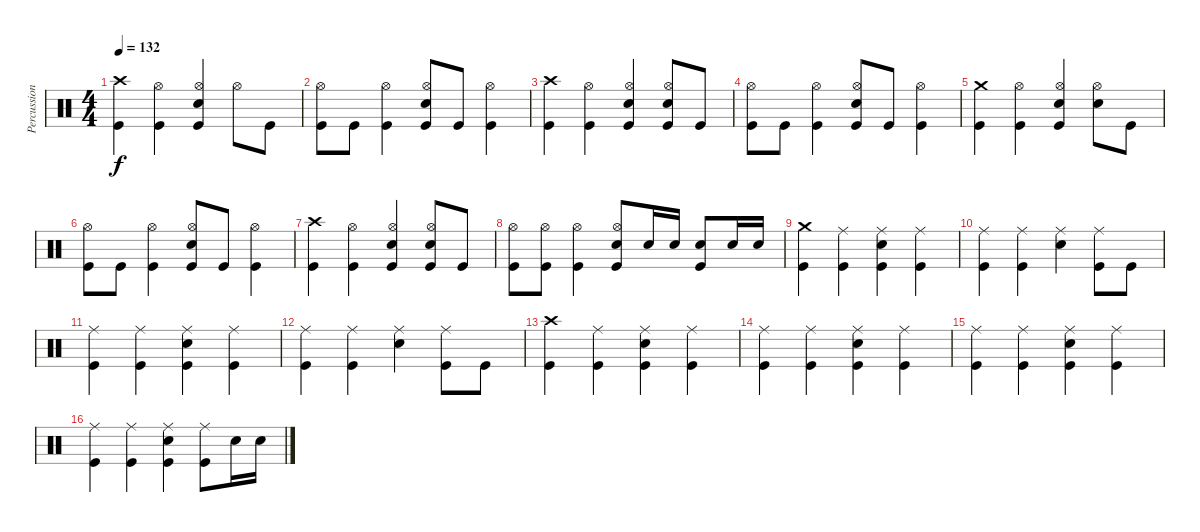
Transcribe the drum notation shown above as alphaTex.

\track ("Percussion" "Percussion") {instrument percussion}
\staff {score}
\articulation defaults
\ts (4 4)
\tempo 132
\clef neutral
\ks c
("Crash high (hit)" "Kick (hit)").4{dy f} ("Hi-Hat (open)" "Kick (hit)").4 ("Hi-Hat (open)" "Electric Snare (hit)" "Kick (hit)").4 "Hi-Hat (open)".8 "Kick (hit)".8 |
("Hi-Hat (open)" "Kick (hit)").8 "Kick (hit)".8 ("Hi-Hat (open)" "Kick (hit)").4 ("Hi-Hat (open)" "Electric Snare (hit)" "Kick (hit)").8 "Kick (hit)".8 ("Hi-Hat (open)" "Kick (hit)").4 |
("Crash high (hit)" "Kick (hit)").4 ("Hi-Hat (open)" "Kick (hit)").4 ("Hi-Hat (open)" "Electric Snare (hit)" "Kick (hit)").4 ("Hi-Hat (open)" "Electric Snare (hit)" "Kick (hit)").8 "Kick (hit)".8 |
("Hi-Hat (open)" "Kick (hit)").8 "Kick (hit)".8 ("Hi-Hat (open)" "Kick (hit)").4 ("Hi-Hat (open)" "Electric Snare (hit)" "Kick (hit)").8 "Kick (hit)".8 ("Hi-Hat (open)" "Kick (hit)").4 |
("Crash medium (hit)" "Kick (hit)").4 ("Hi-Hat (open)" "Kick (hit)").4 ("Hi-Hat (open)" "Electric Snare (hit)" "Kick (hit)").4 ("Hi-Hat (open)" "Electric Snare (hit)").8 "Kick (hit)".8 |
("Hi-Hat (open)" "Kick (hit)").8 "Kick (hit)".8 ("Hi-Hat (open)" "Kick (hit)").4 ("Hi-Hat (open)" "Electric Snare (hit)" "Kick (hit)").8 "Kick (hit)".8 ("Hi-Hat (open)" "Kick (hit)").4 |
("Crash high (hit)" "Kick (hit)").4 ("Hi-Hat (open)" "Kick (hit)").4 ("Hi-Hat (open)" "Electric Snare (hit)" "Kick (hit)").4 ("Hi-Hat (open)" "Electric Snare (hit)" "Kick (hit)").8 "Kick (hit)".8 |
("Hi-Hat (open)" "Kick (hit)").8 ("Hi-Hat (open)" "Kick (hit)").8 ("Hi-Hat (open)" "Kick (hit)").4 ("Hi-Hat (open)" "Electric Snare (hit)" "Kick (hit)").8 "Electric Snare (hit)".16 "Electric Snare (hit)".16 ("Electric Snare (hit)" "Kick (hit)").8 "Electric Snare (hit)".16 "Electric Snare (hit)".16 |
("Crash medium (hit)" "Kick (hit)").4 ("Ride (middle)" "Kick (hit)").4 ("Ride (middle)" "Electric Snare (hit)" "Kick (hit)").4 ("Ride (middle)" "Kick (hit)").4 |
("Ride (middle)" "Kick (hit)").4 ("Ride (middle)" "Kick (hit)").4 ("Ride (middle)" "Electric Snare (hit)").4 ("Ride (middle)" "Kick (hit)").8 "Kick (hit)".8 |
("Ride (middle)" "Kick (hit)").4 ("Ride (middle)" "Kick (hit)").4 ("Ride (middle)" "Electric Snare (hit)" "Kick (hit)").4 ("Ride (middle)" "Kick (hit)").4 |
("Ride (middle)" "Kick (hit)").4 ("Ride (middle)" "Kick (hit)").4 ("Ride (middle)" "Electric Snare (hit)").4 ("Ride (middle)" "Kick (hit)").8 "Kick (hit)".8 |
("Crash high (hit)" "Kick (hit)").4 ("Ride (middle)" "Kick (hit)").4 ("Ride (middle)" "Electric Snare (hit)" "Kick (hit)").4 ("Ride (middle)" "Kick (hit)").4 |
("Ride (middle)" "Kick (hit)").4 ("Ride (middle)" "Kick (hit)").4 ("Ride (middle)" "Electric Snare (hit)" "Kick (hit)").4 ("Ride (middle)" "Kick (hit)").4 |
("Ride (middle)" "Kick (hit)").4 ("Ride (middle)" "Kick (hit)").4 ("Ride (middle)" "Electric Snare (hit)" "Kick (hit)").4 ("Ride (middle)" "Kick (hit)").4 |
("Ride (middle)" "Kick (hit)").4 ("Ride (middle)" "Kick (hit)").4 ("Ride (middle)" "Electric Snare (hit)" "Kick (hit)").4 ("Ride (middle)" "Kick (hit)").8 "Electric Snare (hit)".16 "Electric Snare (hit)".16
